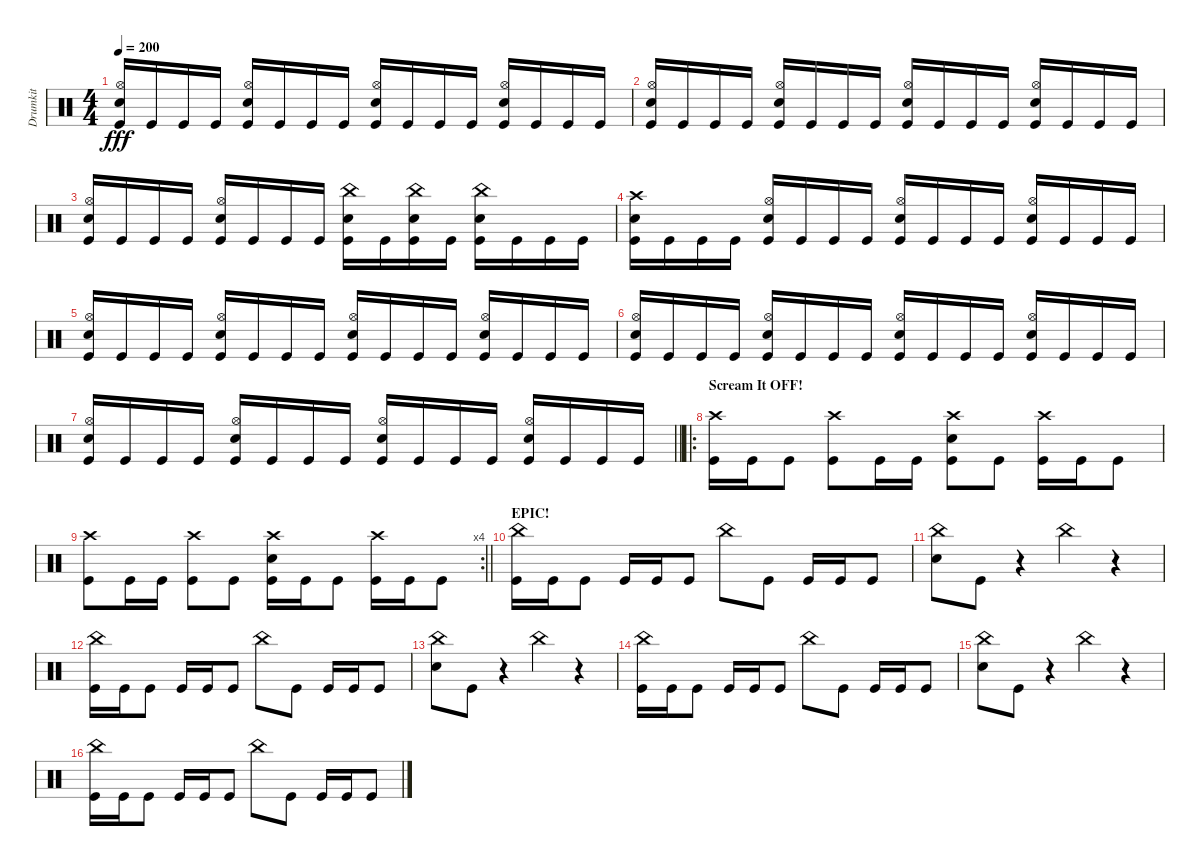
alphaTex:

\track ("Drumkit" "Drumkit") {instrument percussion}
\staff {score}
\articulation defaults
\ts (4 4)
\tempo 200
\clef neutral
\ks c
("Snare (hit) 2" "Hi-Hat (open)" "Kick (hit)").16{dy fff} "Kick (hit)".16 "Kick (hit)".16 "Kick (hit)".16 ("Snare (hit) 2" "Hi-Hat (open)" "Kick (hit)").16 "Kick (hit)".16 "Kick (hit)".16 "Kick (hit)".16 ("Snare (hit) 2" "Hi-Hat (open)" "Kick (hit)").16 "Kick (hit)".16 "Kick (hit)".16 "Kick (hit)".16 ("Snare (hit) 2" "Hi-Hat (open)" "Kick (hit)").16 "Kick (hit)".16 "Kick (hit)".16 "Kick (hit)".16 |
("Snare (hit) 2" "Hi-Hat (open)" "Kick (hit)").16 "Kick (hit)".16 "Kick (hit)".16 "Kick (hit)".16 ("Snare (hit) 2" "Hi-Hat (open)" "Kick (hit)").16 "Kick (hit)".16 "Kick (hit)".16 "Kick (hit)".16 ("Snare (hit) 2" "Hi-Hat (open)" "Kick (hit)").16 "Kick (hit)".16 "Kick (hit)".16 "Kick (hit)".16 ("Snare (hit) 2" "Hi-Hat (open)" "Kick (hit)").16 "Kick (hit)".16 "Kick (hit)".16 "Kick (hit)".16 |
("Snare (hit) 2" "Hi-Hat (open)" "Kick (hit)").16 "Kick (hit)".16 "Kick (hit)".16 "Kick (hit)".16 ("Snare (hit) 2" "Hi-Hat (open)" "Kick (hit)").16 "Kick (hit)".16 "Kick (hit)".16 "Kick (hit)".16 ("Snare (hit) 2" "China (hit)" "Kick (hit)").16 "Kick (hit)".16 ("Snare (hit) 2" "China (hit)" "Kick (hit)").16 "Kick (hit)".16 ("Snare (hit) 2" "China (hit)" "Kick (hit)").16 "Kick (hit)".16 "Kick (hit)".16 "Kick (hit)".16 |
("Snare (hit) 2" "Crash high (hit)" "Kick (hit)").16 "Kick (hit)".16 "Kick (hit)".16 "Kick (hit)".16 ("Snare (hit) 2" "Hi-Hat (open)" "Kick (hit)").16 "Kick (hit)".16 "Kick (hit)".16 "Kick (hit)".16 ("Snare (hit) 2" "Hi-Hat (open)" "Kick (hit)").16 "Kick (hit)".16 "Kick (hit)".16 "Kick (hit)".16 ("Snare (hit) 2" "Hi-Hat (open)" "Kick (hit)").16 "Kick (hit)".16 "Kick (hit)".16 "Kick (hit)".16 |
("Snare (hit) 2" "Hi-Hat (open)" "Kick (hit)").16 "Kick (hit)".16 "Kick (hit)".16 "Kick (hit)".16 ("Snare (hit) 2" "Hi-Hat (open)" "Kick (hit)").16 "Kick (hit)".16 "Kick (hit)".16 "Kick (hit)".16 ("Snare (hit) 2" "Hi-Hat (open)" "Kick (hit)").16 "Kick (hit)".16 "Kick (hit)".16 "Kick (hit)".16 ("Snare (hit) 2" "Hi-Hat (open)" "Kick (hit)").16 "Kick (hit)".16 "Kick (hit)".16 "Kick (hit)".16 |
("Snare (hit) 2" "Hi-Hat (open)" "Kick (hit)").16 "Kick (hit)".16 "Kick (hit)".16 "Kick (hit)".16 ("Snare (hit) 2" "Hi-Hat (open)" "Kick (hit)").16 "Kick (hit)".16 "Kick (hit)".16 "Kick (hit)".16 ("Snare (hit) 2" "Hi-Hat (open)" "Kick (hit)").16 "Kick (hit)".16 "Kick (hit)".16 "Kick (hit)".16 ("Snare (hit) 2" "Hi-Hat (open)" "Kick (hit)").16 "Kick (hit)".16 "Kick (hit)".16 "Kick (hit)".16 |
\barLineRight lightlight
("Snare (hit) 2" "Hi-Hat (open)" "Kick (hit)").16 "Kick (hit)".16 "Kick (hit)".16 "Kick (hit)".16 ("Snare (hit) 2" "Hi-Hat (open)" "Kick (hit)").16 "Kick (hit)".16 "Kick (hit)".16 "Kick (hit)".16 ("Snare (hit) 2" "Hi-Hat (open)" "Kick (hit)").16 "Kick (hit)".16 "Kick (hit)".16 "Kick (hit)".16 ("Snare (hit) 2" "Hi-Hat (open)" "Kick (hit)").16 "Kick (hit)".16 "Kick (hit)".16 "Kick (hit)".16 |
\ro
\section ("" "Scream It OFF!")
("Kick (hit)" "Crash high (hit)").16 "Kick (hit)".16 "Kick (hit)".8 ("Kick (hit)" "Crash high (hit)").8 "Kick (hit)".16 "Kick (hit)".16 ("Kick (hit)" "Crash high (hit)" "Snare (hit) 2").8 "Kick (hit)".8 ("Kick (hit)" "Crash high (hit)").16 "Kick (hit)".16 "Kick (hit)".8 |
\rc 4
\barLineRight lightlight
("Kick (hit)" "Crash high (hit)").8 "Kick (hit)".16 "Kick (hit)".16 ("Kick (hit)" "Crash high (hit)").8 "Kick (hit)".8 ("Kick (hit)" "Crash high (hit)" "Snare (hit) 2").16 "Kick (hit)".16 "Kick (hit)".8 ("Kick (hit)" "Crash high (hit)").16 "Kick (hit)".16 "Kick (hit)".8 |
\section ("" "EPIC!")
("China (hit)" "Kick (hit)").16 "Kick (hit)".16 "Kick (hit)".8 "Kick (hit)".16 "Kick (hit)".16 "Kick (hit)".8 "China (hit)".8 "Kick (hit)".8 "Kick (hit)".16 "Kick (hit)".16 "Kick (hit)".8 |
("China (hit)" "Snare (hit) 2").8 "Kick (hit)".8 r.4 "China (hit)".4 r.4 |
("China (hit)" "Kick (hit)").16 "Kick (hit)".16 "Kick (hit)".8 "Kick (hit)".16 "Kick (hit)".16 "Kick (hit)".8 "China (hit)".8 "Kick (hit)".8 "Kick (hit)".16 "Kick (hit)".16 "Kick (hit)".8 |
("China (hit)" "Snare (hit) 2").8 "Kick (hit)".8 r.4 "China (hit)".4 r.4 |
("China (hit)" "Kick (hit)").16 "Kick (hit)".16 "Kick (hit)".8 "Kick (hit)".16 "Kick (hit)".16 "Kick (hit)".8 "China (hit)".8 "Kick (hit)".8 "Kick (hit)".16 "Kick (hit)".16 "Kick (hit)".8 |
("China (hit)" "Snare (hit) 2").8 "Kick (hit)".8 r.4 "China (hit)".4 r.4 |
("China (hit)" "Kick (hit)").16 "Kick (hit)".16 "Kick (hit)".8 "Kick (hit)".16 "Kick (hit)".16 "Kick (hit)".8 "China (hit)".8 "Kick (hit)".8 "Kick (hit)".16 "Kick (hit)".16 "Kick (hit)".8
